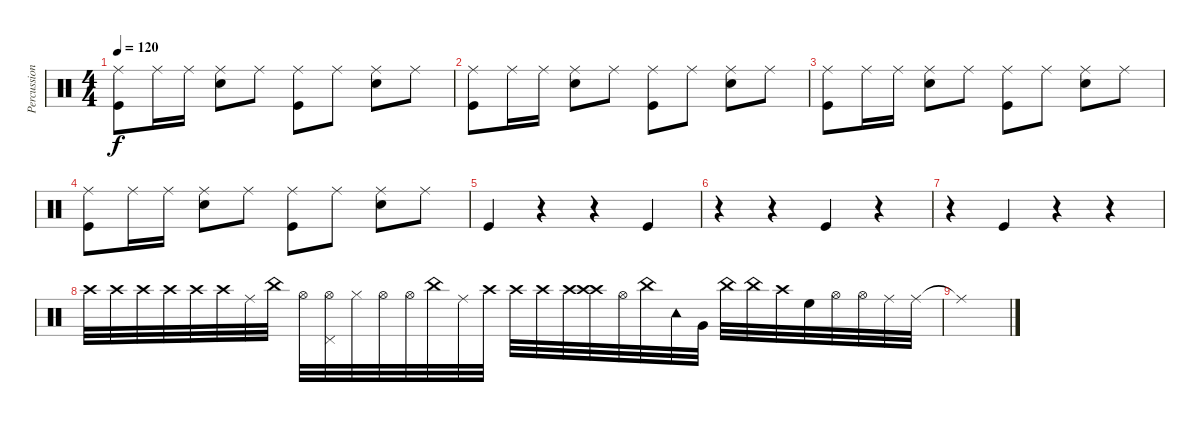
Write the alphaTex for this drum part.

\track ("Percussion" "Percussion") {instrument percussion}
\staff {score}
\articulation defaults
\ts (4 4)
\tempo 120
\clef neutral
\ks c
("Ride (middle)" "Kick (hit)").8{dy f} "Ride (middle)".16 "Ride (middle)".16 ("Ride (middle)" "Snare (hit) 2").8 "Ride (middle)".8 ("Ride (middle)" "Kick (hit)").8 "Ride (middle)".8 ("Ride (middle)" "Snare (hit) 2").8 "Ride (middle)".8 |
("Ride (middle)" "Kick (hit)").8 "Ride (middle)".16 "Ride (middle)".16 ("Ride (middle)" "Snare (hit) 2").8 "Ride (middle)".8 ("Ride (middle)" "Kick (hit)").8 "Ride (middle)".8 ("Ride (middle)" "Snare (hit) 2").8 "Ride (middle)".8 |
("Ride (middle)" "Kick (hit)").8 "Ride (middle)".16 "Ride (middle)".16 ("Ride (middle)" "Snare (hit) 2").8 "Ride (middle)".8 ("Ride (middle)" "Kick (hit)").8 "Ride (middle)".8 ("Ride (middle)" "Snare (hit) 2").8 "Ride (middle)".8 |
("Ride (middle)" "Kick (hit)").8 "Ride (middle)".16 "Ride (middle)".16 ("Ride (middle)" "Snare (hit) 2").8 "Ride (middle)".8 ("Ride (middle)" "Kick (hit)").8 "Ride (middle)".8 ("Ride (middle)" "Snare (hit) 2").8 "Ride (middle)".8 |
"Kick (hit)".4 r.4 r.4 "Kick (hit)".4 |
r.4 r.4 "Kick (hit)".4 r.4 |
r.4 "Kick (hit)".4 r.4 r.4 |
"Crash high (hit)".32 "Crash high (hit)".32 "Crash high (hit)".32 "Crash high (hit)".32 "Crash high (hit)".32 "Crash high (hit)".32 "Ride (middle)".32 "China (hit)".32 "Hi-Hat (open)".32 ("Hi-Hat (open)" "Pedal Hi-Hat (hit)").32 "Hi-Hat (closed)".32 "Hi-Hat (open)".32 "Hi-Hat (open)".32 "China (hit)".32 "Ride (middle)".32 "Crash high (hit)".32 "Crash high (hit)".32 "Crash high (hit)".32 "Crash high (hit)".32 ("Crash high (hit)" "Crash high (hit)").32 "Hi-Hat (open)".32 "China (hit)".32 "Tambourine (hit)".32 "Very Low Tom (hit)".32 "China (hit)".32 "China (hit)".32 "Crash high (hit)".32 "High Floor Tom (hit)".32 "Hi-Hat (open)".32 "Hi-Hat (open)".32 "Ride (middle)".32 "Ride (middle)".32 |
"Ride (middle)"{t}.1
